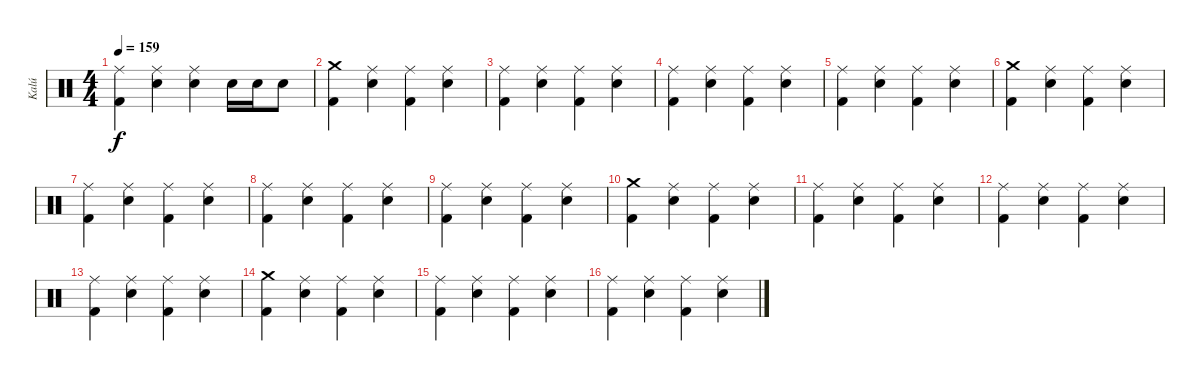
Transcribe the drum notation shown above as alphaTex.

\track ("Kalú" "Kalú") {instrument percussion}
\staff {score}
\articulation defaults
\ts (4 4)
\tempo 159
\clef neutral
\ks c
("Ride (middle)" "Kick (hit) 2").4{dy f} ("Ride (middle)" "Electric Snare (hit)").4 ("Ride (middle)" "Electric Snare (hit)").4 "Electric Snare (hit)".16 "Electric Snare (hit)".16 "Electric Snare (hit)".8 |
("Crash medium (hit)" "Kick (hit) 2").4 ("Ride (middle)" "Electric Snare (hit)").4 ("Ride (middle)" "Kick (hit) 2").4 ("Ride (middle)" "Electric Snare (hit)").4 |
("Ride (middle)" "Kick (hit) 2").4 ("Ride (middle)" "Electric Snare (hit)").4 ("Ride (middle)" "Kick (hit) 2").4 ("Ride (middle)" "Electric Snare (hit)").4 |
("Ride (middle)" "Kick (hit) 2").4 ("Ride (middle)" "Electric Snare (hit)").4 ("Ride (middle)" "Kick (hit) 2").4 ("Ride (middle)" "Electric Snare (hit)").4 |
("Ride (middle)" "Kick (hit) 2").4 ("Ride (middle)" "Electric Snare (hit)").4 ("Ride (middle)" "Kick (hit) 2").4 ("Ride (middle)" "Electric Snare (hit)").4 |
("Crash medium (hit)" "Kick (hit) 2").4 ("Ride (middle)" "Electric Snare (hit)").4 ("Ride (middle)" "Kick (hit) 2").4 ("Ride (middle)" "Electric Snare (hit)").4 |
("Ride (middle)" "Kick (hit) 2").4 ("Ride (middle)" "Electric Snare (hit)").4 ("Ride (middle)" "Kick (hit) 2").4 ("Ride (middle)" "Electric Snare (hit)").4 |
("Ride (middle)" "Kick (hit) 2").4 ("Ride (middle)" "Electric Snare (hit)").4 ("Ride (middle)" "Kick (hit) 2").4 ("Ride (middle)" "Electric Snare (hit)").4 |
("Ride (middle)" "Kick (hit) 2").4 ("Ride (middle)" "Electric Snare (hit)").4 ("Ride (middle)" "Kick (hit) 2").4 ("Ride (middle)" "Electric Snare (hit)").4 |
("Crash medium (hit)" "Kick (hit) 2").4 ("Ride (middle)" "Electric Snare (hit)").4 ("Ride (middle)" "Kick (hit) 2").4 ("Ride (middle)" "Electric Snare (hit)").4 |
("Ride (middle)" "Kick (hit) 2").4 ("Ride (middle)" "Electric Snare (hit)").4 ("Ride (middle)" "Kick (hit) 2").4 ("Ride (middle)" "Electric Snare (hit)").4 |
("Ride (middle)" "Kick (hit) 2").4 ("Ride (middle)" "Electric Snare (hit)").4 ("Ride (middle)" "Kick (hit) 2").4 ("Ride (middle)" "Electric Snare (hit)").4 |
("Ride (middle)" "Kick (hit) 2").4 ("Ride (middle)" "Electric Snare (hit)").4 ("Ride (middle)" "Kick (hit) 2").4 ("Ride (middle)" "Electric Snare (hit)").4 |
("Crash medium (hit)" "Kick (hit) 2").4 ("Ride (middle)" "Electric Snare (hit)").4 ("Ride (middle)" "Kick (hit) 2").4 ("Ride (middle)" "Electric Snare (hit)").4 |
("Ride (middle)" "Kick (hit) 2").4 ("Ride (middle)" "Electric Snare (hit)").4 ("Ride (middle)" "Kick (hit) 2").4 ("Ride (middle)" "Electric Snare (hit)").4 |
("Ride (middle)" "Kick (hit) 2").4 ("Ride (middle)" "Electric Snare (hit)").4 ("Ride (middle)" "Kick (hit) 2").4 ("Ride (middle)" "Electric Snare (hit)").4
